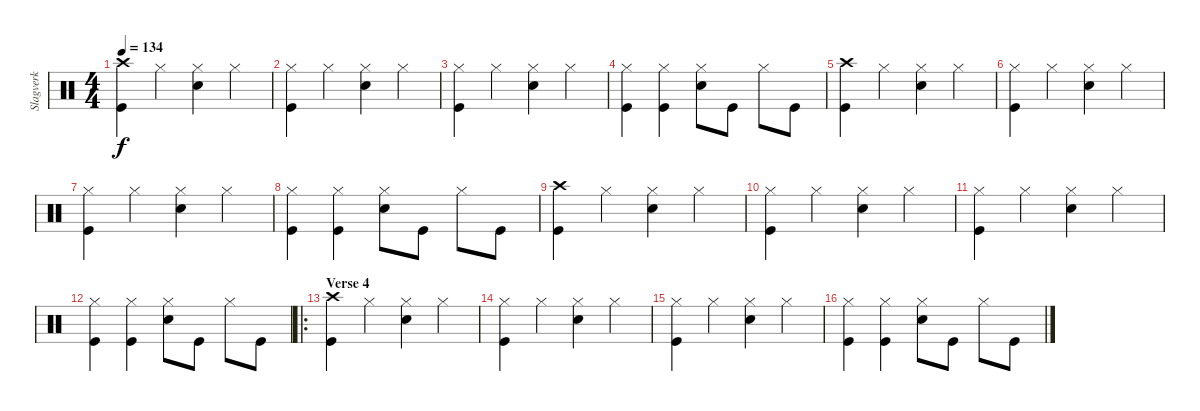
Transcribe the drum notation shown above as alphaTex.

\track ("Slagverk" "Slagverk") {instrument percussion}
\staff {score}
\articulation defaults
\ts (4 4)
\tempo 134
\clef neutral
\ks c
("Crash high (hit)" "Kick (hit)").4{dy f} "Hi-Hat (closed)".4 ("Hi-Hat (closed)" "Snare (hit) 2").4 "Hi-Hat (closed)".4 |
("Hi-Hat (closed)" "Kick (hit)").4 "Hi-Hat (closed)".4 ("Hi-Hat (closed)" "Snare (hit) 2").4 "Hi-Hat (closed)".4 |
("Hi-Hat (closed)" "Kick (hit)").4 "Hi-Hat (closed)".4 ("Hi-Hat (closed)" "Snare (hit) 2").4 "Hi-Hat (closed)".4 |
("Hi-Hat (closed)" "Kick (hit)").4 ("Hi-Hat (closed)" "Kick (hit)").4 ("Hi-Hat (closed)" "Snare (hit) 2").8 "Kick (hit)".8 "Hi-Hat (closed)".8 "Kick (hit)".8 |
("Crash high (hit)" "Kick (hit)").4 "Hi-Hat (closed)".4 ("Hi-Hat (closed)" "Snare (hit) 2").4 "Hi-Hat (closed)".4 |
("Hi-Hat (closed)" "Kick (hit)").4 "Hi-Hat (closed)".4 ("Hi-Hat (closed)" "Snare (hit) 2").4 "Hi-Hat (closed)".4 |
("Hi-Hat (closed)" "Kick (hit)").4 "Hi-Hat (closed)".4 ("Hi-Hat (closed)" "Snare (hit) 2").4 "Hi-Hat (closed)".4 |
("Hi-Hat (closed)" "Kick (hit)").4 ("Hi-Hat (closed)" "Kick (hit)").4 ("Hi-Hat (closed)" "Snare (hit) 2").8 "Kick (hit)".8 "Hi-Hat (closed)".8 "Kick (hit)".8 |
("Crash high (hit)" "Kick (hit)").4 "Hi-Hat (closed)".4 ("Hi-Hat (closed)" "Snare (hit) 2").4 "Hi-Hat (closed)".4 |
("Hi-Hat (closed)" "Kick (hit)").4 "Hi-Hat (closed)".4 ("Hi-Hat (closed)" "Snare (hit) 2").4 "Hi-Hat (closed)".4 |
("Hi-Hat (closed)" "Kick (hit)").4 "Hi-Hat (closed)".4 ("Hi-Hat (closed)" "Snare (hit) 2").4 "Hi-Hat (closed)".4 |
("Hi-Hat (closed)" "Kick (hit)").4 ("Hi-Hat (closed)" "Kick (hit)").4 ("Hi-Hat (closed)" "Snare (hit) 2").8 "Kick (hit)".8 "Hi-Hat (closed)".8 "Kick (hit)".8 |
\ro
\section ("" "Verse 4")
("Crash high (hit)" "Kick (hit)").4 "Hi-Hat (closed)".4 ("Hi-Hat (closed)" "Snare (hit) 2").4 "Hi-Hat (closed)".4 |
("Hi-Hat (closed)" "Kick (hit)").4 "Hi-Hat (closed)".4 ("Hi-Hat (closed)" "Snare (hit) 2").4 "Hi-Hat (closed)".4 |
("Hi-Hat (closed)" "Kick (hit)").4 "Hi-Hat (closed)".4 ("Hi-Hat (closed)" "Snare (hit) 2").4 "Hi-Hat (closed)".4 |
("Hi-Hat (closed)" "Kick (hit)").4 ("Hi-Hat (closed)" "Kick (hit)").4 ("Hi-Hat (closed)" "Snare (hit) 2").8 "Kick (hit)".8 "Hi-Hat (closed)".8 "Kick (hit)".8
